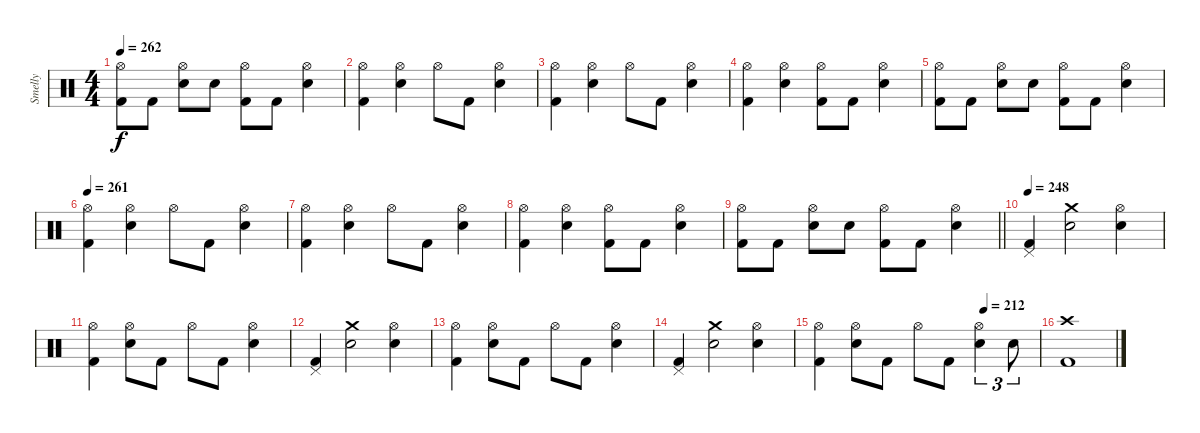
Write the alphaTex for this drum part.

\track ("Smelly" "Smelly") {instrument percussion}
\staff {score}
\articulation defaults
\ts (4 4)
\tempo 262
\clef neutral
\ks c
("Hi-Hat (open)" "Kick (hit) 2").8{dy f} "Kick (hit) 2".8 ("Hi-Hat (open)" "Electric Snare (hit)").8 "Electric Snare (hit)".8 ("Hi-Hat (open)" "Kick (hit) 2").8 "Kick (hit) 2".8 ("Hi-Hat (open)" "Electric Snare (hit)").4 |
("Hi-Hat (open)" "Kick (hit) 2").4 ("Hi-Hat (open)" "Electric Snare (hit)").4 "Hi-Hat (open)".8 "Kick (hit) 2".8 ("Hi-Hat (open)" "Electric Snare (hit)").4 |
("Hi-Hat (open)" "Kick (hit) 2").4 ("Hi-Hat (open)" "Electric Snare (hit)").4 "Hi-Hat (open)".8 "Kick (hit) 2".8 ("Hi-Hat (open)" "Electric Snare (hit)").4 |
("Hi-Hat (open)" "Kick (hit) 2").4 ("Hi-Hat (open)" "Electric Snare (hit)").4 ("Hi-Hat (open)" "Kick (hit) 2").8 "Kick (hit) 2".8 ("Hi-Hat (open)" "Electric Snare (hit)").4 |
("Hi-Hat (open)" "Kick (hit) 2").8 "Kick (hit) 2".8 ("Hi-Hat (open)" "Electric Snare (hit)").8 "Electric Snare (hit)".8 ("Hi-Hat (open)" "Kick (hit) 2").8 "Kick (hit) 2".8 ("Hi-Hat (open)" "Electric Snare (hit)").4 |
\tempo 261
("Hi-Hat (open)" "Kick (hit) 2").4 ("Hi-Hat (open)" "Electric Snare (hit)").4 "Hi-Hat (open)".8 "Kick (hit) 2".8 ("Hi-Hat (open)" "Electric Snare (hit)").4 |
("Hi-Hat (open)" "Kick (hit) 2").4 ("Hi-Hat (open)" "Electric Snare (hit)").4 "Hi-Hat (open)".8 "Kick (hit) 2".8 ("Hi-Hat (open)" "Electric Snare (hit)").4 |
("Hi-Hat (open)" "Kick (hit) 2").4 ("Hi-Hat (open)" "Electric Snare (hit)").4 ("Hi-Hat (open)" "Kick (hit) 2").8 "Kick (hit) 2".8 ("Hi-Hat (open)" "Electric Snare (hit)").4 |
\barLineRight lightlight
("Hi-Hat (open)" "Kick (hit) 2").8 "Kick (hit) 2".8 ("Hi-Hat (open)" "Electric Snare (hit)").8 "Electric Snare (hit)".8 ("Hi-Hat (open)" "Kick (hit) 2").8 "Kick (hit) 2".8 ("Hi-Hat (open)" "Electric Snare (hit)").4 |
\section ("" "")
\tempo 248
("Pedal Hi-Hat (hit)" "Kick (hit) 2").4 ("Crash medium (hit)" "Electric Snare (hit)").2 ("Hi-Hat (open)" "Electric Snare (hit)").4 |
("Hi-Hat (open)" "Kick (hit) 2").4 ("Hi-Hat (open)" "Electric Snare (hit)").8 "Kick (hit) 2".8 "Hi-Hat (open)".8 "Kick (hit) 2".8 ("Hi-Hat (open)" "Electric Snare (hit)").4 |
("Pedal Hi-Hat (hit)" "Kick (hit) 2").4 ("Crash medium (hit)" "Electric Snare (hit)").2 ("Hi-Hat (open)" "Electric Snare (hit)").4 |
("Hi-Hat (open)" "Kick (hit) 2").4 ("Hi-Hat (open)" "Electric Snare (hit)").8 "Kick (hit) 2".8 "Hi-Hat (open)".8 "Kick (hit) 2".8 ("Hi-Hat (open)" "Electric Snare (hit)").4 |
("Pedal Hi-Hat (hit)" "Kick (hit) 2").4 ("Crash medium (hit)" "Electric Snare (hit)").2 ("Hi-Hat (open)" "Electric Snare (hit)").4 |
\tempo (212 0.75)
("Hi-Hat (open)" "Kick (hit) 2").4 ("Hi-Hat (open)" "Electric Snare (hit)").8 "Kick (hit) 2".8 "Hi-Hat (open)".8 "Kick (hit) 2".8 ("Hi-Hat (open)" "Electric Snare (hit)").4{tu (3 2)} "Electric Snare (hit)".8{tu (3 2)} |
("Crash high (hit)" "Kick (hit) 2").1
